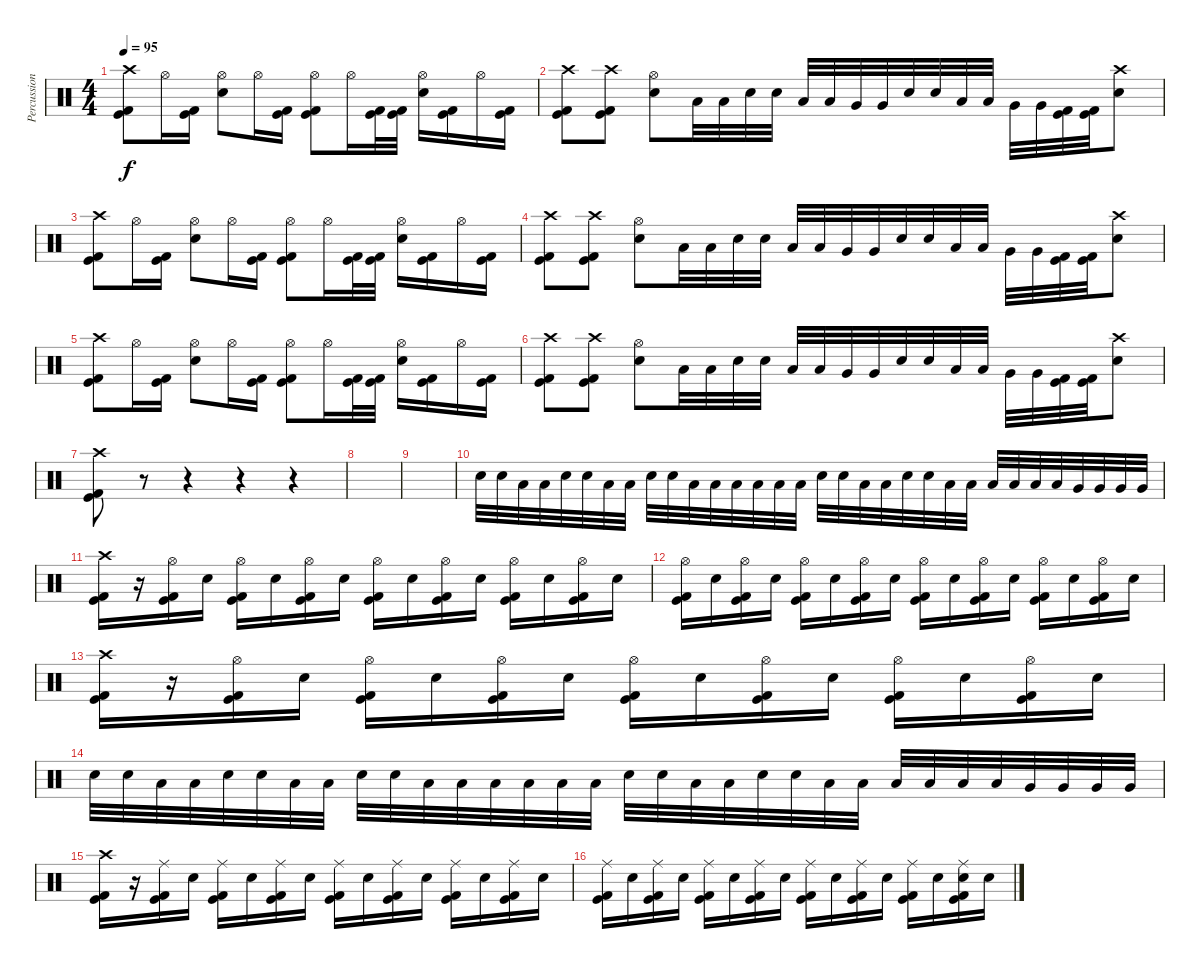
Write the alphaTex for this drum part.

\track ("Percussion" "Percussion") {instrument percussion}
\staff {score}
\articulation defaults
\ts (4 4)
\tempo 95
\clef neutral
\ks c
("Kick (hit) 2" "Kick (hit)" "Crash high (hit)").8{dy f} "Hi-Hat (open)".16 ("Kick (hit) 2" "Kick (hit)").16 ("Electric Snare (hit)" "Hi-Hat (open)").8 "Hi-Hat (open)".16 ("Kick (hit) 2" "Kick (hit)").16 ("Kick (hit) 2" "Kick (hit)" "Hi-Hat (open)").8 "Hi-Hat (open)".16 ("Kick (hit) 2" "Kick (hit)").32 ("Kick (hit) 2" "Kick (hit)").32 ("Electric Snare (hit)" "Hi-Hat (open)").16 ("Kick (hit) 2" "Kick (hit)").16 "Hi-Hat (open)".16 ("Kick (hit) 2" "Kick (hit)").16 |
("Kick (hit) 2" "Kick (hit)" "Crash high (hit)").8 ("Kick (hit) 2" "Kick (hit)" "Crash high (hit)").8 ("Electric Snare (hit)" "Hi-Hat (open)").8 "Low Tom (hit)".32 "Low Tom (hit)".32 "Electric Snare (hit)".32 "Electric Snare (hit)".32 "Low Tom (hit)".32 "Low Tom (hit)".32 "Very Low Tom (hit)".32 "Very Low Tom (hit)".32 "Electric Snare (hit)".32 "Electric Snare (hit)".32 "Low Tom (hit)".32 "Low Tom (hit)".32 "Very Low Tom (hit)".32 "Very Low Tom (hit)".32 ("Kick (hit) 2" "Kick (hit)").32 ("Kick (hit) 2" "Kick (hit)").32 ("Electric Snare (hit)" "Crash high (hit)").8 |
("Kick (hit) 2" "Kick (hit)" "Crash high (hit)").8 "Hi-Hat (open)".16 ("Kick (hit) 2" "Kick (hit)").16 ("Electric Snare (hit)" "Hi-Hat (open)").8 "Hi-Hat (open)".16 ("Kick (hit) 2" "Kick (hit)").16 ("Kick (hit) 2" "Kick (hit)" "Hi-Hat (open)").8 "Hi-Hat (open)".16 ("Kick (hit) 2" "Kick (hit)").32 ("Kick (hit) 2" "Kick (hit)").32 ("Electric Snare (hit)" "Hi-Hat (open)").16 ("Kick (hit) 2" "Kick (hit)").16 "Hi-Hat (open)".16 ("Kick (hit) 2" "Kick (hit)").16 |
("Kick (hit) 2" "Kick (hit)" "Crash high (hit)").8 ("Kick (hit) 2" "Kick (hit)" "Crash high (hit)").8 ("Electric Snare (hit)" "Hi-Hat (open)").8 "Low Tom (hit)".32 "Low Tom (hit)".32 "Electric Snare (hit)".32 "Electric Snare (hit)".32 "Low Tom (hit)".32 "Low Tom (hit)".32 "Very Low Tom (hit)".32 "Very Low Tom (hit)".32 "Electric Snare (hit)".32 "Electric Snare (hit)".32 "Low Tom (hit)".32 "Low Tom (hit)".32 "Very Low Tom (hit)".32 "Very Low Tom (hit)".32 ("Kick (hit) 2" "Kick (hit)").32 ("Kick (hit) 2" "Kick (hit)").32 ("Electric Snare (hit)" "Crash high (hit)").8 |
("Kick (hit) 2" "Kick (hit)" "Crash high (hit)").8 "Hi-Hat (open)".16 ("Kick (hit) 2" "Kick (hit)").16 ("Electric Snare (hit)" "Hi-Hat (open)").8 "Hi-Hat (open)".16 ("Kick (hit) 2" "Kick (hit)").16 ("Kick (hit) 2" "Kick (hit)" "Hi-Hat (open)").8 "Hi-Hat (open)".16 ("Kick (hit) 2" "Kick (hit)").32 ("Kick (hit) 2" "Kick (hit)").32 ("Electric Snare (hit)" "Hi-Hat (open)").16 ("Kick (hit) 2" "Kick (hit)").16 "Hi-Hat (open)".16 ("Kick (hit) 2" "Kick (hit)").16 |
("Kick (hit) 2" "Kick (hit)" "Crash high (hit)").8 ("Kick (hit) 2" "Kick (hit)" "Crash high (hit)").8 ("Electric Snare (hit)" "Hi-Hat (open)").8 "Low Tom (hit)".32 "Low Tom (hit)".32 "Electric Snare (hit)".32 "Electric Snare (hit)".32 "Low Tom (hit)".32 "Low Tom (hit)".32 "Very Low Tom (hit)".32 "Very Low Tom (hit)".32 "Electric Snare (hit)".32 "Electric Snare (hit)".32 "Low Tom (hit)".32 "Low Tom (hit)".32 "Very Low Tom (hit)".32 "Very Low Tom (hit)".32 ("Kick (hit) 2" "Kick (hit)").32 ("Kick (hit) 2" "Kick (hit)").32 ("Electric Snare (hit)" "Crash high (hit)").8 |
("Kick (hit) 2" "Kick (hit)" "Crash high (hit)").8 r.8 r.4 r.4 r.4 |
|
|
"Electric Snare (hit)".32 "Electric Snare (hit)".32 "Low Tom (hit)".32 "Low Tom (hit)".32 "Electric Snare (hit)".32 "Electric Snare (hit)".32 "Low Tom (hit)".32 "Low Tom (hit)".32 "Electric Snare (hit)".32 "Electric Snare (hit)".32 "Low Tom (hit)".32 "Low Tom (hit)".32 "Low Tom (hit)".32 "Low Tom (hit)".32 "Low Tom (hit)".32 "Low Tom (hit)".32 "Electric Snare (hit)".32 "Electric Snare (hit)".32 "Low Tom (hit)".32 "Low Tom (hit)".32 "Electric Snare (hit)".32 "Electric Snare (hit)".32 "Low Tom (hit)".32 "Low Tom (hit)".32 "Low Tom (hit)".32 "Low Tom (hit)".32 "Low Tom (hit)".32 "Low Tom (hit)".32 "Very Low Tom (hit)".32 "Very Low Tom (hit)".32 "Very Low Tom (hit)".32 "Very Low Tom (hit)".32 |
("Kick (hit) 2" "Kick (hit)" "Crash high (hit)").16 r.16 ("Kick (hit) 2" "Kick (hit)" "Hi-Hat (open)").16 "Electric Snare (hit)".16 ("Kick (hit) 2" "Kick (hit)" "Hi-Hat (open)").16 "Electric Snare (hit)".16 ("Kick (hit) 2" "Kick (hit)" "Hi-Hat (open)").16 "Electric Snare (hit)".16 ("Kick (hit) 2" "Kick (hit)" "Hi-Hat (open)").16 "Electric Snare (hit)".16 ("Kick (hit) 2" "Kick (hit)" "Hi-Hat (open)").16 "Electric Snare (hit)".16 ("Kick (hit) 2" "Kick (hit)" "Hi-Hat (open)").16 "Electric Snare (hit)".16 ("Kick (hit) 2" "Kick (hit)" "Hi-Hat (open)").16 "Electric Snare (hit)".16 |
("Kick (hit) 2" "Kick (hit)" "Hi-Hat (open)").16 "Electric Snare (hit)".16 ("Kick (hit) 2" "Kick (hit)" "Hi-Hat (open)").16 "Electric Snare (hit)".16 ("Kick (hit) 2" "Kick (hit)" "Hi-Hat (open)").16 "Electric Snare (hit)".16 ("Kick (hit) 2" "Kick (hit)" "Hi-Hat (open)").16 "Electric Snare (hit)".16 ("Kick (hit) 2" "Kick (hit)" "Hi-Hat (open)").16 "Electric Snare (hit)".16 ("Kick (hit) 2" "Kick (hit)" "Hi-Hat (open)").16 "Electric Snare (hit)".16 ("Kick (hit) 2" "Kick (hit)" "Hi-Hat (open)").16 "Electric Snare (hit)".16 ("Kick (hit) 2" "Kick (hit)" "Hi-Hat (open)").16 "Electric Snare (hit)".16 |
("Kick (hit) 2" "Kick (hit)" "Crash high (hit)").16 r.16 ("Kick (hit) 2" "Kick (hit)" "Hi-Hat (open)").16 "Electric Snare (hit)".16 ("Kick (hit) 2" "Kick (hit)" "Hi-Hat (open)").16 "Electric Snare (hit)".16 ("Kick (hit) 2" "Kick (hit)" "Hi-Hat (open)").16 "Electric Snare (hit)".16 ("Kick (hit) 2" "Kick (hit)" "Hi-Hat (open)").16 "Electric Snare (hit)".16 ("Kick (hit) 2" "Kick (hit)" "Hi-Hat (open)").16 "Electric Snare (hit)".16 ("Kick (hit) 2" "Kick (hit)" "Hi-Hat (open)").16 "Electric Snare (hit)".16 ("Kick (hit) 2" "Kick (hit)" "Hi-Hat (open)").16 "Electric Snare (hit)".16 |
"Electric Snare (hit)".32 "Electric Snare (hit)".32 "Low Tom (hit)".32 "Low Tom (hit)".32 "Electric Snare (hit)".32 "Electric Snare (hit)".32 "Low Tom (hit)".32 "Low Tom (hit)".32 "Electric Snare (hit)".32 "Electric Snare (hit)".32 "Low Tom (hit)".32 "Low Tom (hit)".32 "Low Tom (hit)".32 "Low Tom (hit)".32 "Low Tom (hit)".32 "Low Tom (hit)".32 "Electric Snare (hit)".32 "Electric Snare (hit)".32 "Low Tom (hit)".32 "Low Tom (hit)".32 "Electric Snare (hit)".32 "Electric Snare (hit)".32 "Low Tom (hit)".32 "Low Tom (hit)".32 "Low Tom (hit)".32 "Low Tom (hit)".32 "Low Tom (hit)".32 "Low Tom (hit)".32 "Very Low Tom (hit)".32 "Very Low Tom (hit)".32 "Very Low Tom (hit)".32 "Very Low Tom (hit)".32 |
("Kick (hit) 2" "Kick (hit)" "Crash high (hit)").16 r.16 ("Kick (hit) 2" "Kick (hit)" "Ride (middle)").16 "Electric Snare (hit)".16 ("Kick (hit) 2" "Kick (hit)" "Ride (middle)").16 "Electric Snare (hit)".16 ("Kick (hit) 2" "Kick (hit)" "Ride (middle)").16 "Electric Snare (hit)".16 ("Kick (hit) 2" "Kick (hit)" "Ride (middle)").16 "Electric Snare (hit)".16 ("Kick (hit) 2" "Kick (hit)" "Ride (middle)").16 "Electric Snare (hit)".16 ("Kick (hit) 2" "Kick (hit)" "Ride (middle)").16 "Electric Snare (hit)".16 ("Kick (hit) 2" "Kick (hit)" "Ride (middle)").16 "Electric Snare (hit)".16 |
("Kick (hit) 2" "Kick (hit)" "Ride (middle)").16 "Electric Snare (hit)".16 ("Kick (hit) 2" "Kick (hit)" "Ride (middle)").16 "Electric Snare (hit)".16 ("Kick (hit) 2" "Kick (hit)" "Ride (middle)").16 "Electric Snare (hit)".16 ("Kick (hit) 2" "Kick (hit)" "Ride (middle)").16 "Electric Snare (hit)".16 ("Kick (hit) 2" "Kick (hit)" "Ride (middle)").16 "Electric Snare (hit)".16 ("Kick (hit) 2" "Kick (hit)" "Ride (middle)").16 "Electric Snare (hit)".16 ("Kick (hit) 2" "Kick (hit)" "Ride (middle)").16 "Electric Snare (hit)".16 ("Kick (hit) 2" "Kick (hit)" "Ride (middle)" "Electric Snare (hit)").16 "Electric Snare (hit)".16
